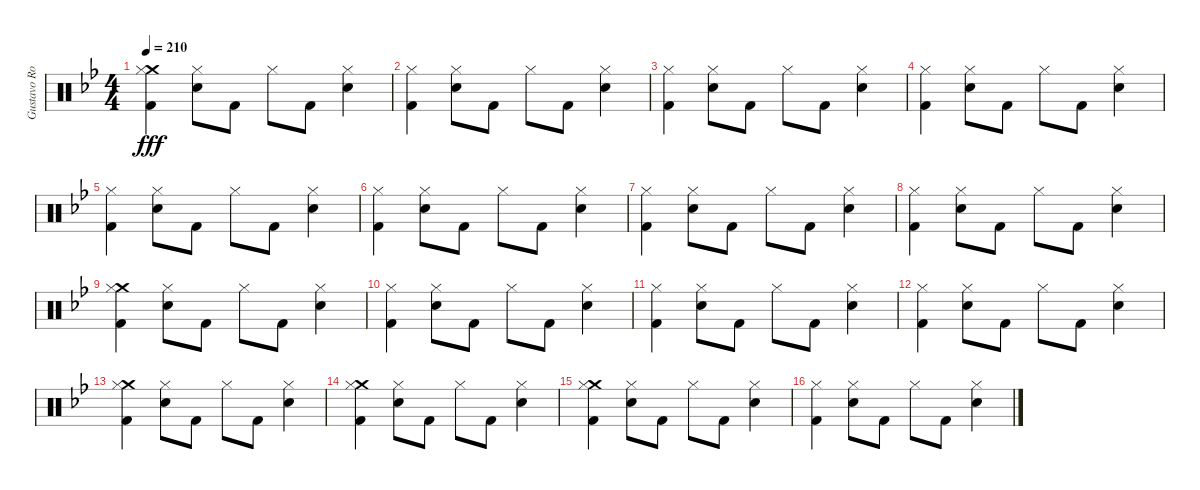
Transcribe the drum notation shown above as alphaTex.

\track ("Gustavo Rowek" "Gustavo Ro") {instrument percussion}
\staff {score}
\articulation defaults
\ts (4 4)
\tempo 210
\clef neutral
\ks gminor
("Crash medium (hit)" "Hi-Hat (closed)" "Kick (hit) 2").4{dy fff} ("Hi-Hat (closed)" "Snare (hit) 2").8 "Kick (hit) 2".8 "Hi-Hat (closed)".8 "Kick (hit) 2".8 ("Hi-Hat (closed)" "Snare (hit) 2").4 |
("Hi-Hat (closed)" "Kick (hit) 2").4 ("Hi-Hat (closed)" "Snare (hit) 2").8 "Kick (hit) 2".8 "Hi-Hat (closed)".8 "Kick (hit) 2".8 ("Hi-Hat (closed)" "Snare (hit) 2").4 |
("Hi-Hat (closed)" "Kick (hit) 2").4 ("Hi-Hat (closed)" "Snare (hit) 2").8 "Kick (hit) 2".8 "Hi-Hat (closed)".8 "Kick (hit) 2".8 ("Hi-Hat (closed)" "Snare (hit) 2").4 |
("Hi-Hat (closed)" "Kick (hit) 2").4 ("Hi-Hat (closed)" "Snare (hit) 2").8 "Kick (hit) 2".8 "Hi-Hat (closed)".8 "Kick (hit) 2".8 ("Hi-Hat (closed)" "Snare (hit) 2").4 |
("Hi-Hat (closed)" "Kick (hit) 2").4 ("Hi-Hat (closed)" "Snare (hit) 2").8 "Kick (hit) 2".8 "Hi-Hat (closed)".8 "Kick (hit) 2".8 ("Hi-Hat (closed)" "Snare (hit) 2").4 |
("Hi-Hat (closed)" "Kick (hit) 2").4 ("Hi-Hat (closed)" "Snare (hit) 2").8 "Kick (hit) 2".8 "Hi-Hat (closed)".8 "Kick (hit) 2".8 ("Hi-Hat (closed)" "Snare (hit) 2").4 |
("Hi-Hat (closed)" "Kick (hit) 2").4 ("Hi-Hat (closed)" "Snare (hit) 2").8 "Kick (hit) 2".8 "Hi-Hat (closed)".8 "Kick (hit) 2".8 ("Hi-Hat (closed)" "Snare (hit) 2").4 |
("Hi-Hat (closed)" "Kick (hit) 2").4 ("Hi-Hat (closed)" "Snare (hit) 2").8 "Kick (hit) 2".8 "Hi-Hat (closed)".8 "Kick (hit) 2".8 ("Hi-Hat (closed)" "Snare (hit) 2").4 |
("Crash medium (hit)" "Hi-Hat (closed)" "Kick (hit) 2").4 ("Hi-Hat (closed)" "Snare (hit) 2").8 "Kick (hit) 2".8 "Hi-Hat (closed)".8 "Kick (hit) 2".8 ("Hi-Hat (closed)" "Snare (hit) 2").4 |
("Hi-Hat (closed)" "Kick (hit) 2").4 ("Hi-Hat (closed)" "Snare (hit) 2").8 "Kick (hit) 2".8 "Hi-Hat (closed)".8 "Kick (hit) 2".8 ("Hi-Hat (closed)" "Snare (hit) 2").4 |
("Hi-Hat (closed)" "Kick (hit) 2").4 ("Hi-Hat (closed)" "Snare (hit) 2").8 "Kick (hit) 2".8 "Hi-Hat (closed)".8 "Kick (hit) 2".8 ("Hi-Hat (closed)" "Snare (hit) 2").4 |
("Hi-Hat (closed)" "Kick (hit) 2").4 ("Hi-Hat (closed)" "Snare (hit) 2").8 "Kick (hit) 2".8 "Hi-Hat (closed)".8 "Kick (hit) 2".8 ("Hi-Hat (closed)" "Snare (hit) 2").4 |
("Crash medium (hit)" "Hi-Hat (closed)" "Kick (hit) 2").4 ("Hi-Hat (closed)" "Snare (hit) 2").8 "Kick (hit) 2".8 "Hi-Hat (closed)".8 "Kick (hit) 2".8 ("Hi-Hat (closed)" "Snare (hit) 2").4 |
("Crash medium (hit)" "Hi-Hat (closed)" "Kick (hit) 2").4 ("Hi-Hat (closed)" "Snare (hit) 2").8 "Kick (hit) 2".8 "Hi-Hat (closed)".8 "Kick (hit) 2".8 ("Hi-Hat (closed)" "Snare (hit) 2").4 |
("Crash medium (hit)" "Hi-Hat (closed)" "Kick (hit) 2").4 ("Hi-Hat (closed)" "Snare (hit) 2").8 "Kick (hit) 2".8 "Hi-Hat (closed)".8 "Kick (hit) 2".8 ("Hi-Hat (closed)" "Snare (hit) 2").4 |
("Hi-Hat (closed)" "Kick (hit) 2").4 ("Hi-Hat (closed)" "Snare (hit) 2").8 "Kick (hit) 2".8 "Hi-Hat (closed)".8 "Kick (hit) 2".8 ("Hi-Hat (closed)" "Snare (hit) 2").4
